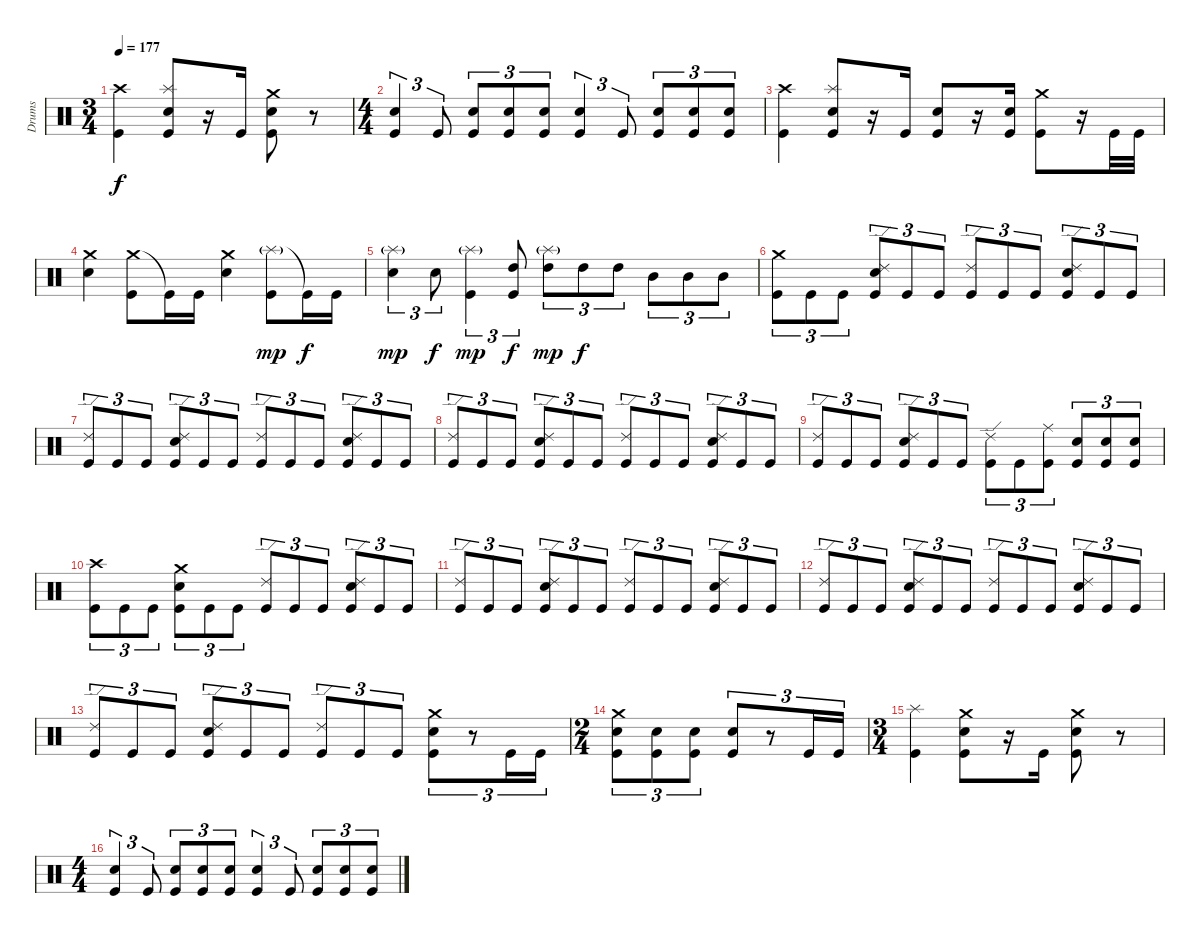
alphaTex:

\track ("Drums" "Drums") {instrument percussion}
\staff {score}
\articulation defaults
\ts (3 4)
\tempo 177
\clef neutral
\ks c
("Crash high (hit)" "Kick (hit)").4{dy f} ("Splash (hit)" "Snare (hit) 2" "Kick (hit)").8 r.16 "Kick (hit)".16 ("Crash medium (hit)" "Snare (hit) 2" "Kick (hit)").8 r.8 |
\ts (4 4)
("Snare (hit) 2" "Kick (hit)").4{tu (3 2)} "Kick (hit)".8{tu (3 2)} ("Snare (hit) 2" "Kick (hit)").8{tu (3 2)} ("Snare (hit) 2" "Kick (hit)").8{tu (3 2)} ("Snare (hit) 2" "Kick (hit)").8{tu (3 2)} ("Snare (hit) 2" "Kick (hit)").4{tu (3 2)} "Kick (hit)".8{tu (3 2)} ("Snare (hit) 2" "Kick (hit)").8{tu (3 2)} ("Snare (hit) 2" "Kick (hit)").8{tu (3 2)} ("Snare (hit) 2" "Kick (hit)").8{tu (3 2)} |
("Crash high (hit)" "Kick (hit)").4 ("Splash (hit)" "Snare (hit) 2" "Kick (hit)").8 r.16 "Kick (hit)".16 ("Snare (hit) 2" "Kick (hit)").8 r.16 ("Snare (hit) 2" "Kick (hit)").16 ("Crash medium (hit)" "Kick (hit)").8 r.16 "Kick (hit)".32 "Kick (hit)".32 |
("Crash medium (hit)" "Snare (hit) 2").4 ("Crash medium (hit)" "Kick (hit)").8 "Kick (hit)"{t}.16 "Kick (hit)".16 ("Crash medium (hit)" "Snare (hit) 2").4 ("Splash (hit)"{g} "Kick (hit)").8{dy mp} "Kick (hit)"{t}.16{dy f} "Kick (hit)".16 |
("Splash (hit)"{g} "Snare (hit) 2").4{tu (3 2) dy mp} "Snare (hit) 2".8{tu (3 2) dy f} ("Splash (hit)"{g} "Kick (hit)").4{tu (3 2) dy mp} ("High Tom (hit)" "Kick (hit)").8{tu (3 2) dy f} ("Splash (hit)"{g} "High Tom (hit)").8{tu (3 2) dy mp} "High Tom (hit)".8{tu (3 2) dy f} "High Tom (hit)".8{tu (3 2)} "Mid Tom (hit)".8{tu (3 2)} "Mid Tom (hit)".8{tu (3 2)} "Mid Tom (hit)".8{tu (3 2)} |
("Crash medium (hit)" "Kick (hit)").8{tu (3 2)} "Kick (hit)".8{tu (3 2)} "Kick (hit)".8{tu (3 2)} ("Ride (edge) 2" "Snare (hit) 2" "Kick (hit)").8{tu (3 2)} "Kick (hit)".8{tu (3 2)} "Kick (hit)".8{tu (3 2)} ("Ride (edge) 2" "Kick (hit)").8{tu (3 2)} "Kick (hit)".8{tu (3 2)} "Kick (hit)".8{tu (3 2)} ("Ride (edge) 2" "Snare (hit) 2" "Kick (hit)").8{tu (3 2)} "Kick (hit)".8{tu (3 2)} "Kick (hit)".8{tu (3 2)} |
("Ride (edge) 2" "Kick (hit)").8{tu (3 2)} "Kick (hit)".8{tu (3 2)} "Kick (hit)".8{tu (3 2)} ("Ride (edge) 2" "Snare (hit) 2" "Kick (hit)").8{tu (3 2)} "Kick (hit)".8{tu (3 2)} "Kick (hit)".8{tu (3 2)} ("Ride (edge) 2" "Kick (hit)").8{tu (3 2)} "Kick (hit)".8{tu (3 2)} "Kick (hit)".8{tu (3 2)} ("Ride (edge) 2" "Snare (hit) 2" "Kick (hit)").8{tu (3 2)} "Kick (hit)".8{tu (3 2)} "Kick (hit)".8{tu (3 2)} |
("Ride (edge) 2" "Kick (hit)").8{tu (3 2)} "Kick (hit)".8{tu (3 2)} "Kick (hit)".8{tu (3 2)} ("Ride (edge) 2" "Snare (hit) 2" "Kick (hit)").8{tu (3 2)} "Kick (hit)".8{tu (3 2)} "Kick (hit)".8{tu (3 2)} ("Ride (edge) 2" "Kick (hit)").8{tu (3 2)} "Kick (hit)".8{tu (3 2)} "Kick (hit)".8{tu (3 2)} ("Ride (edge) 2" "Snare (hit) 2" "Kick (hit)").8{tu (3 2)} "Kick (hit)".8{tu (3 2)} "Kick (hit)".8{tu (3 2)} |
("Ride (edge) 2" "Kick (hit)").8{tu (3 2)} "Kick (hit)".8{tu (3 2)} "Kick (hit)".8{tu (3 2)} ("Ride (edge) 2" "Snare (hit) 2" "Kick (hit)").8{tu (3 2)} "Kick (hit)".8{tu (3 2)} "Kick (hit)".8{tu (3 2)} ("Ride (edge) 2" "Kick (hit)").8{tu (3 2)} "Kick (hit)".8{tu (3 2)} ("Ride (middle)" "Kick (hit)").8{tu (3 2)} ("Snare (hit) 2" "Kick (hit)").8{tu (3 2)} ("Snare (hit) 2" "Kick (hit)").8{tu (3 2)} ("Snare (hit) 2" "Kick (hit)").8{tu (3 2)} |
("Crash high (hit)" "Kick (hit)").8{tu (3 2)} "Kick (hit)".8{tu (3 2)} "Kick (hit)".8{tu (3 2)} ("Crash medium (hit)" "Snare (hit) 2" "Kick (hit)").8{tu (3 2)} "Kick (hit)".8{tu (3 2)} "Kick (hit)".8{tu (3 2)} ("Ride (edge) 2" "Kick (hit)").8{tu (3 2)} "Kick (hit)".8{tu (3 2)} "Kick (hit)".8{tu (3 2)} ("Ride (edge) 2" "Snare (hit) 2" "Kick (hit)").8{tu (3 2)} "Kick (hit)".8{tu (3 2)} "Kick (hit)".8{tu (3 2)} |
("Ride (edge) 2" "Kick (hit)").8{tu (3 2)} "Kick (hit)".8{tu (3 2)} "Kick (hit)".8{tu (3 2)} ("Ride (edge) 2" "Snare (hit) 2" "Kick (hit)").8{tu (3 2)} "Kick (hit)".8{tu (3 2)} "Kick (hit)".8{tu (3 2)} ("Ride (edge) 2" "Kick (hit)").8{tu (3 2)} "Kick (hit)".8{tu (3 2)} "Kick (hit)".8{tu (3 2)} ("Ride (edge) 2" "Snare (hit) 2" "Kick (hit)").8{tu (3 2)} "Kick (hit)".8{tu (3 2)} "Kick (hit)".8{tu (3 2)} |
("Ride (edge) 2" "Kick (hit)").8{tu (3 2)} "Kick (hit)".8{tu (3 2)} "Kick (hit)".8{tu (3 2)} ("Ride (edge) 2" "Snare (hit) 2" "Kick (hit)").8{tu (3 2)} "Kick (hit)".8{tu (3 2)} "Kick (hit)".8{tu (3 2)} ("Ride (edge) 2" "Kick (hit)").8{tu (3 2)} "Kick (hit)".8{tu (3 2)} "Kick (hit)".8{tu (3 2)} ("Ride (edge) 2" "Snare (hit) 2" "Kick (hit)").8{tu (3 2)} "Kick (hit)".8{tu (3 2)} "Kick (hit)".8{tu (3 2)} |
("Ride (edge) 2" "Kick (hit)").8{tu (3 2)} "Kick (hit)".8{tu (3 2)} "Kick (hit)".8{tu (3 2)} ("Ride (edge) 2" "Snare (hit) 2" "Kick (hit)").8{tu (3 2)} "Kick (hit)".8{tu (3 2)} "Kick (hit)".8{tu (3 2)} ("Ride (edge) 2" "Kick (hit)").8{tu (3 2)} "Kick (hit)".8{tu (3 2)} "Kick (hit)".8{tu (3 2)} ("Crash medium (hit)" "Snare (hit) 2" "Kick (hit)").8{tu (3 2)} r.8{tu (3 2)} "Kick (hit)".16{tu (3 2)} "Kick (hit)".16{tu (3 2)} |
\ts (2 4)
("Crash medium (hit)" "Snare (hit) 2" "Kick (hit)").8{tu (3 2)} ("Snare (hit) 2" "Kick (hit)").8{tu (3 2)} ("Snare (hit) 2" "Kick (hit)").8{tu (3 2)} ("Snare (hit) 2" "Kick (hit)").8{tu (3 2)} r.8{tu (3 2)} "Kick (hit)".16{tu (3 2)} "Kick (hit)".16{tu (3 2)} |
\ts (3 4)
("Splash (hit)" "Kick (hit)").4 ("Crash medium (hit)" "Snare (hit) 2" "Kick (hit)").8 r.16 "Kick (hit)".16 ("Crash medium (hit)" "Snare (hit) 2" "Kick (hit)").8 r.8 |
\ts (4 4)
("Snare (hit) 2" "Kick (hit)").4{tu (3 2)} "Kick (hit)".8{tu (3 2)} ("Snare (hit) 2" "Kick (hit)").8{tu (3 2)} ("Snare (hit) 2" "Kick (hit)").8{tu (3 2)} ("Snare (hit) 2" "Kick (hit)").8{tu (3 2)} ("Snare (hit) 2" "Kick (hit)").4{tu (3 2)} "Kick (hit)".8{tu (3 2)} ("Snare (hit) 2" "Kick (hit)").8{tu (3 2)} ("Snare (hit) 2" "Kick (hit)").8{tu (3 2)} ("Snare (hit) 2" "Kick (hit)").8{tu (3 2)}
